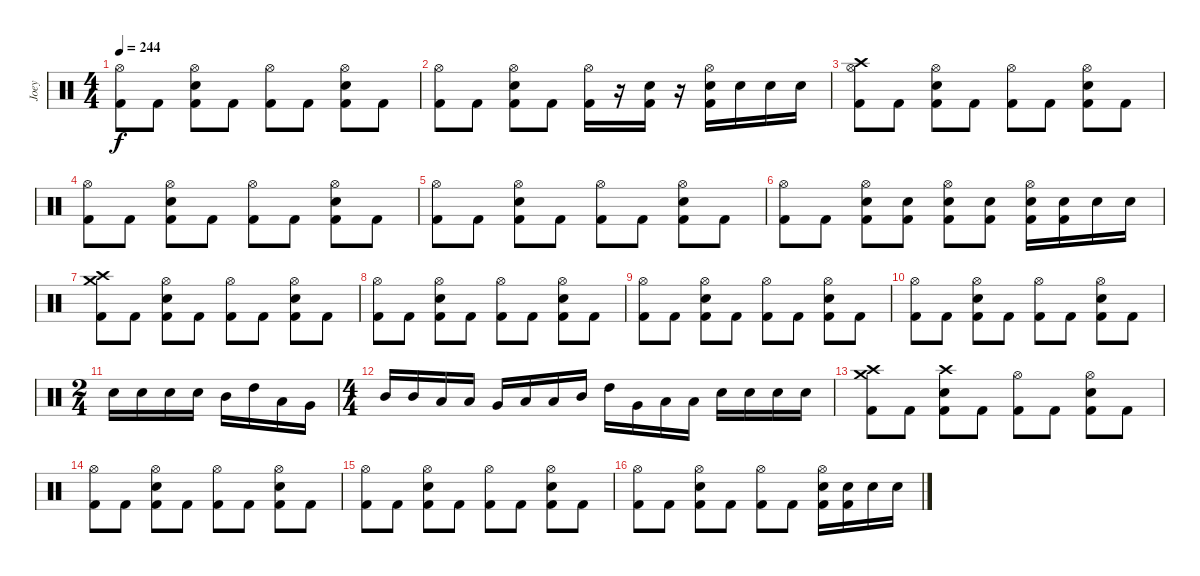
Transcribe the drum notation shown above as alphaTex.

\track ("Joey" "Joey") {instrument percussion}
\staff {score}
\articulation defaults
\ts (4 4)
\tempo 244
\clef neutral
\ks c
("Hi-Hat (open)" "Kick (hit) 2").8{dy f} "Kick (hit) 2".8 ("Hi-Hat (open)" "Snare (hit) 2" "Kick (hit) 2").8 "Kick (hit) 2".8 ("Hi-Hat (open)" "Kick (hit) 2").8 "Kick (hit) 2".8 ("Hi-Hat (open)" "Snare (hit) 2" "Kick (hit) 2").8 "Kick (hit) 2".8 |
("Hi-Hat (open)" "Kick (hit) 2").8 "Kick (hit) 2".8 ("Hi-Hat (open)" "Snare (hit) 2" "Kick (hit) 2").8 "Kick (hit) 2".8 ("Hi-Hat (open)" "Kick (hit) 2").16 r.16 ("Snare (hit) 2" "Kick (hit) 2").16 r.16 ("Hi-Hat (open)" "Snare (hit) 2" "Kick (hit) 2").16 "Snare (hit) 2".16 "Snare (hit) 2".16 "Snare (hit) 2".16 |
("Crash high (hit)" "Hi-Hat (open)" "Kick (hit) 2").8 "Kick (hit) 2".8 ("Hi-Hat (open)" "Snare (hit) 2" "Kick (hit) 2").8 "Kick (hit) 2".8 ("Hi-Hat (open)" "Kick (hit) 2").8 "Kick (hit) 2".8 ("Hi-Hat (open)" "Snare (hit) 2" "Kick (hit) 2").8 "Kick (hit) 2".8 |
("Hi-Hat (open)" "Kick (hit) 2").8 "Kick (hit) 2".8 ("Hi-Hat (open)" "Snare (hit) 2" "Kick (hit) 2").8 "Kick (hit) 2".8 ("Hi-Hat (open)" "Kick (hit) 2").8 "Kick (hit) 2".8 ("Hi-Hat (open)" "Snare (hit) 2" "Kick (hit) 2").8 "Kick (hit) 2".8 |
("Hi-Hat (open)" "Kick (hit) 2").8 "Kick (hit) 2".8 ("Hi-Hat (open)" "Snare (hit) 2" "Kick (hit) 2").8 "Kick (hit) 2".8 ("Hi-Hat (open)" "Kick (hit) 2").8 "Kick (hit) 2".8 ("Hi-Hat (open)" "Snare (hit) 2" "Kick (hit) 2").8 "Kick (hit) 2".8 |
("Hi-Hat (open)" "Kick (hit) 2").8 "Kick (hit) 2".8 ("Hi-Hat (open)" "Snare (hit) 2" "Kick (hit) 2").8 ("Snare (hit) 2" "Kick (hit) 2").8 ("Hi-Hat (open)" "Snare (hit) 2" "Kick (hit) 2").8 ("Snare (hit) 2" "Kick (hit) 2").8 ("Hi-Hat (open)" "Snare (hit) 2" "Kick (hit) 2").16 ("Snare (hit) 2" "Kick (hit) 2").16 "Snare (hit) 2".16 "Snare (hit) 2".16 |
("Crash high (hit)" "Crash medium (hit)" "Kick (hit) 2").8 "Kick (hit) 2".8 ("Hi-Hat (open)" "Snare (hit) 2" "Kick (hit) 2").8 "Kick (hit) 2".8 ("Hi-Hat (open)" "Kick (hit) 2").8 "Kick (hit) 2".8 ("Hi-Hat (open)" "Snare (hit) 2" "Kick (hit) 2").8 "Kick (hit) 2".8 |
("Hi-Hat (open)" "Kick (hit) 2").8 "Kick (hit) 2".8 ("Hi-Hat (open)" "Snare (hit) 2" "Kick (hit) 2").8 "Kick (hit) 2".8 ("Hi-Hat (open)" "Kick (hit) 2").8 "Kick (hit) 2".8 ("Hi-Hat (open)" "Snare (hit) 2" "Kick (hit) 2").8 "Kick (hit) 2".8 |
("Hi-Hat (open)" "Kick (hit) 2").8 "Kick (hit) 2".8 ("Hi-Hat (open)" "Snare (hit) 2" "Kick (hit) 2").8 "Kick (hit) 2".8 ("Hi-Hat (open)" "Kick (hit) 2").8 "Kick (hit) 2".8 ("Hi-Hat (open)" "Snare (hit) 2" "Kick (hit) 2").8 "Kick (hit) 2".8 |
("Hi-Hat (open)" "Kick (hit) 2").8 "Kick (hit) 2".8 ("Hi-Hat (open)" "Snare (hit) 2" "Kick (hit) 2").8 "Kick (hit) 2".8 ("Hi-Hat (open)" "Kick (hit) 2").8 "Kick (hit) 2".8 ("Hi-Hat (open)" "Snare (hit) 2" "Kick (hit) 2").8 "Kick (hit) 2".8 |
\ts (2 4)
"Snare (hit) 2".16 "Snare (hit) 2".16 "Snare (hit) 2".16 "Snare (hit) 2".16 "Mid Tom (hit)".16 "High Tom (hit)".16 "Low Floor Tom (hit)".16 "Very Low Tom (hit)".16 |
\ts (4 4)
"Mid Tom (hit)".16 "Mid Tom (hit)".16 "Low Tom (hit)".16 "Low Tom (hit)".16 "Very Low Tom (hit)".16 "Low Floor Tom (hit)".16 "Low Tom (hit)".16 "Mid Tom (hit)".16 "High Tom (hit)".16 "Very Low Tom (hit)".16 "Low Tom (hit)".16 "Low Floor Tom (hit)".16 "Snare (hit) 2".16 "Snare (hit) 2".16 "Snare (hit) 2".16 "Snare (hit) 2".16 |
("Crash high (hit)" "Crash medium (hit)" "Kick (hit) 2").8 "Kick (hit) 2".8 ("Crash high (hit)" "Snare (hit) 2" "Kick (hit) 2").8 "Kick (hit) 2".8 ("Hi-Hat (open)" "Kick (hit) 2").8 "Kick (hit) 2".8 ("Hi-Hat (open)" "Snare (hit) 2" "Kick (hit) 2").8 "Kick (hit) 2".8 |
("Hi-Hat (open)" "Kick (hit) 2").8 "Kick (hit) 2".8 ("Hi-Hat (open)" "Snare (hit) 2" "Kick (hit) 2").8 "Kick (hit) 2".8 ("Hi-Hat (open)" "Kick (hit) 2").8 "Kick (hit) 2".8 ("Hi-Hat (open)" "Snare (hit) 2" "Kick (hit) 2").8 "Kick (hit) 2".8 |
("Hi-Hat (open)" "Kick (hit) 2").8 "Kick (hit) 2".8 ("Hi-Hat (open)" "Snare (hit) 2" "Kick (hit) 2").8 "Kick (hit) 2".8 ("Hi-Hat (open)" "Kick (hit) 2").8 "Kick (hit) 2".8 ("Hi-Hat (open)" "Snare (hit) 2" "Kick (hit) 2").8 "Kick (hit) 2".8 |
("Hi-Hat (open)" "Kick (hit) 2").8 "Kick (hit) 2".8 ("Hi-Hat (open)" "Snare (hit) 2" "Kick (hit) 2").8 "Kick (hit) 2".8 ("Hi-Hat (open)" "Kick (hit) 2").8 "Kick (hit) 2".8 ("Hi-Hat (open)" "Snare (hit) 2" "Kick (hit) 2").16 ("Snare (hit) 2" "Kick (hit) 2").16 "Snare (hit) 2".16 "Snare (hit) 2".16
